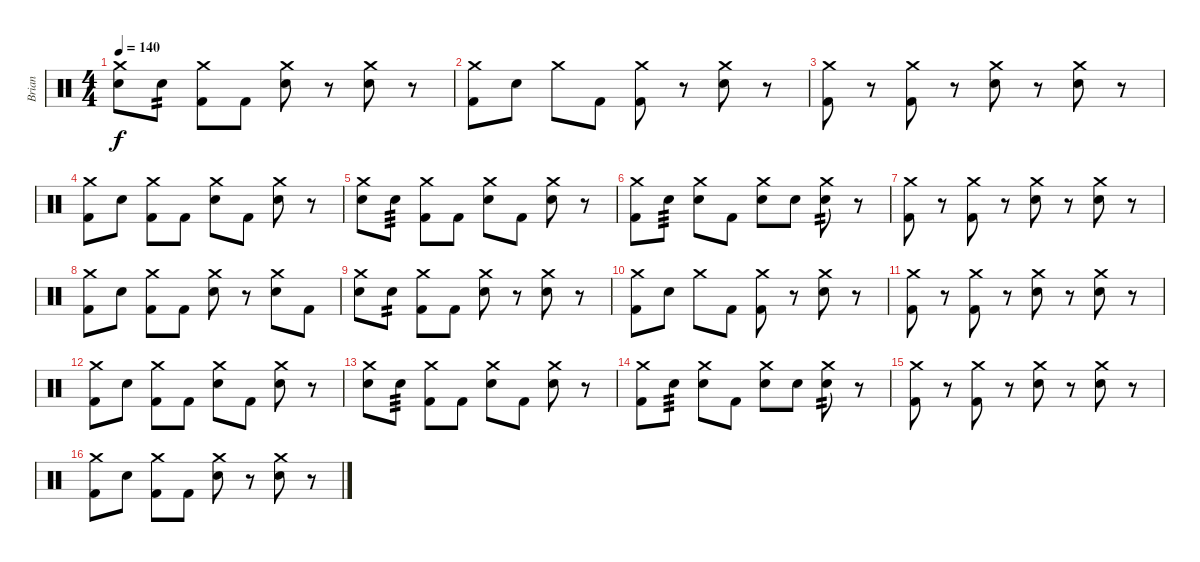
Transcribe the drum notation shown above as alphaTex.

\track ("Brian" "Brian") {instrument percussion}
\staff {score}
\articulation defaults
\ts (4 4)
\tempo 140
\clef neutral
\ks c
("Crash medium (hit)" "Electric Snare (hit)").8{dy f} "Electric Snare (hit)".8{tp 2} ("Crash medium (hit)" "Kick (hit) 2").8 "Kick (hit) 2".8 ("Crash medium (hit)" "Electric Snare (hit)").8 r.8 ("Crash medium (hit)" "Electric Snare (hit)").8 r.8 |
("Crash medium (hit)" "Kick (hit) 2").8 "Electric Snare (hit)".8 "Crash medium (hit)".8 "Kick (hit) 2".8 ("Crash medium (hit)" "Kick (hit) 2").8 r.8 ("Crash medium (hit)" "Electric Snare (hit)").8 r.8 |
("Crash medium (hit)" "Kick (hit) 2").8 r.8 ("Crash medium (hit)" "Kick (hit) 2").8 r.8 ("Crash medium (hit)" "Electric Snare (hit)").8 r.8 ("Crash medium (hit)" "Electric Snare (hit)").8 r.8 |
("Crash medium (hit)" "Kick (hit) 2").8 "Electric Snare (hit)".8 ("Crash medium (hit)" "Kick (hit) 2").8 "Kick (hit) 2".8 ("Crash medium (hit)" "Electric Snare (hit)").8 "Kick (hit) 2".8 ("Crash medium (hit)" "Electric Snare (hit)").8 r.8 |
("Crash medium (hit)" "Electric Snare (hit)").8 "Electric Snare (hit)".8{tp 3} ("Crash medium (hit)" "Kick (hit) 2").8 "Kick (hit) 2".8 ("Crash medium (hit)" "Electric Snare (hit)").8 "Kick (hit) 2".8 ("Crash medium (hit)" "Electric Snare (hit)").8 r.8 |
("Crash medium (hit)" "Kick (hit) 2").8 "Electric Snare (hit)".8{tp 3} ("Crash medium (hit)" "Electric Snare (hit)").8 "Kick (hit) 2".8 ("Crash medium (hit)" "Electric Snare (hit)").8 "Electric Snare (hit)".8 ("Crash medium (hit)" "Electric Snare (hit)").8{tp 2} r.8 |
("Crash medium (hit)" "Kick (hit) 2").8 r.8 ("Crash medium (hit)" "Kick (hit) 2").8 r.8 ("Crash medium (hit)" "Electric Snare (hit)").8 r.8 ("Crash medium (hit)" "Electric Snare (hit)").8 r.8 |
("Crash medium (hit)" "Kick (hit) 2").8 "Electric Snare (hit)".8 ("Crash medium (hit)" "Kick (hit) 2").8 "Kick (hit) 2".8 ("Crash medium (hit)" "Electric Snare (hit)").8 r.8 ("Crash medium (hit)" "Electric Snare (hit)").8 "Kick (hit) 2".8 |
("Crash medium (hit)" "Electric Snare (hit)").8 "Electric Snare (hit)".8{tp 2} ("Crash medium (hit)" "Kick (hit) 2").8 "Kick (hit) 2".8 ("Crash medium (hit)" "Electric Snare (hit)").8 r.8 ("Crash medium (hit)" "Electric Snare (hit)").8 r.8 |
("Crash medium (hit)" "Kick (hit) 2").8 "Electric Snare (hit)".8 "Crash medium (hit)".8 "Kick (hit) 2".8 ("Crash medium (hit)" "Kick (hit) 2").8 r.8 ("Crash medium (hit)" "Electric Snare (hit)").8 r.8 |
("Crash medium (hit)" "Kick (hit) 2").8 r.8 ("Crash medium (hit)" "Kick (hit) 2").8 r.8 ("Crash medium (hit)" "Electric Snare (hit)").8 r.8 ("Crash medium (hit)" "Electric Snare (hit)").8 r.8 |
("Crash medium (hit)" "Kick (hit) 2").8 "Electric Snare (hit)".8 ("Crash medium (hit)" "Kick (hit) 2").8 "Kick (hit) 2".8 ("Crash medium (hit)" "Electric Snare (hit)").8 "Kick (hit) 2".8 ("Crash medium (hit)" "Electric Snare (hit)").8 r.8 |
("Crash medium (hit)" "Electric Snare (hit)").8 "Electric Snare (hit)".8{tp 3} ("Crash medium (hit)" "Kick (hit) 2").8 "Kick (hit) 2".8 ("Crash medium (hit)" "Electric Snare (hit)").8 "Kick (hit) 2".8 ("Crash medium (hit)" "Electric Snare (hit)").8 r.8 |
("Crash medium (hit)" "Kick (hit) 2").8 "Electric Snare (hit)".8{tp 3} ("Crash medium (hit)" "Electric Snare (hit)").8 "Kick (hit) 2".8 ("Crash medium (hit)" "Electric Snare (hit)").8 "Electric Snare (hit)".8 ("Crash medium (hit)" "Electric Snare (hit)").8{tp 2} r.8 |
("Crash medium (hit)" "Kick (hit) 2").8 r.8 ("Crash medium (hit)" "Kick (hit) 2").8 r.8 ("Crash medium (hit)" "Electric Snare (hit)").8 r.8 ("Crash medium (hit)" "Electric Snare (hit)").8 r.8 |
("Crash medium (hit)" "Kick (hit) 2").8 "Electric Snare (hit)".8 ("Crash medium (hit)" "Kick (hit) 2").8 "Kick (hit) 2".8 ("Crash medium (hit)" "Electric Snare (hit)").8 r.8 ("Crash medium (hit)" "Electric Snare (hit)").8 r.8
